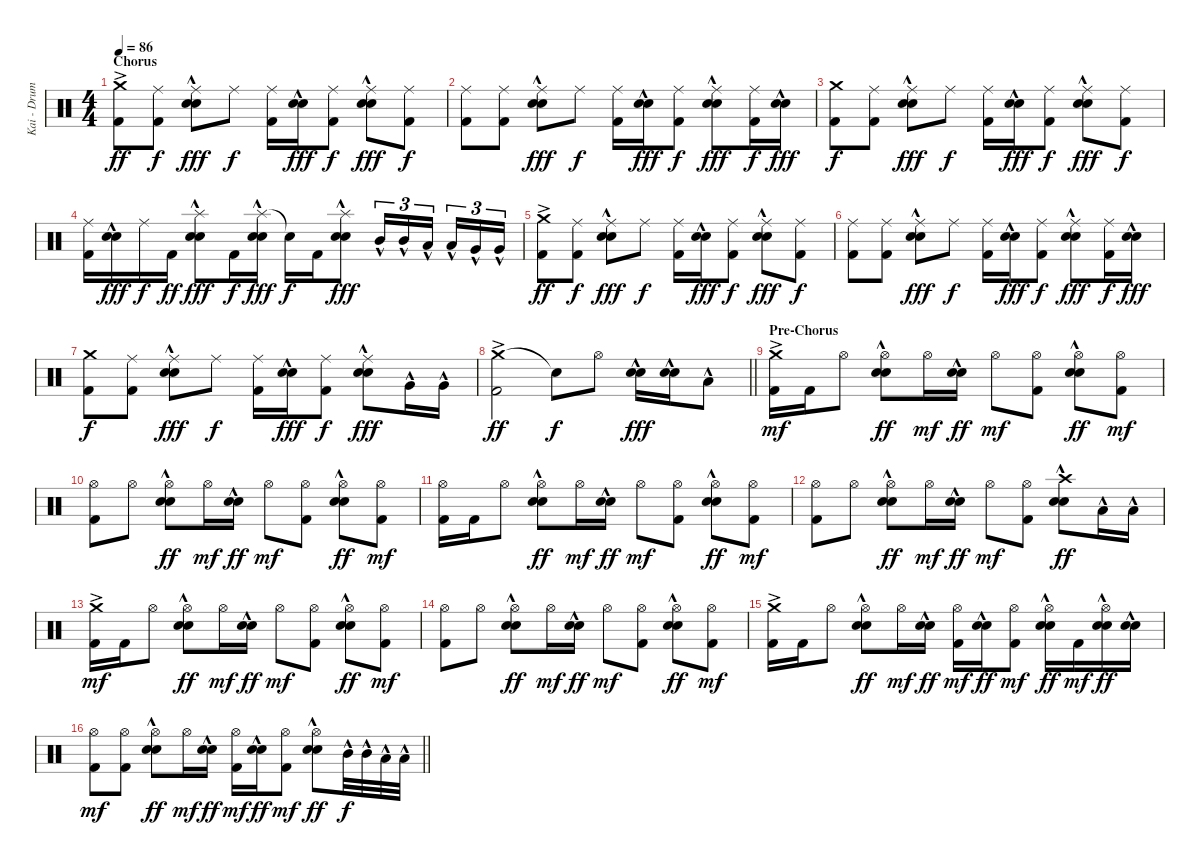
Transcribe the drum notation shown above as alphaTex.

\track ("Kai - Drums" "Kai - Drum") {instrument percussion}
\staff {score}
\articulation defaults
\ts (4 4)
\section ("" "Chorus")
\tempo 86
\clef neutral
\ks c
("Crash medium (hit)"{ac} "Kick (hit) 2").8{dy ff} ("Ride (middle)" "Kick (hit) 2").8{dy f} ("Ride (middle)" "Electric Snare (hit)"{hac} "Snare (hit) 2"{hac}).8{dy fff} "Ride (middle)".8{dy f} ("Ride (middle)" "Kick (hit) 2").16 ("Electric Snare (hit)"{hac} "Snare (hit) 2"{hac}).16{dy fff} ("Ride (middle)" "Kick (hit) 2").8{dy f} ("Ride (middle)" "Electric Snare (hit)"{hac} "Snare (hit) 2"{hac}).8{dy fff} ("Ride (middle)" "Kick (hit) 2").8{dy f} |
("Ride (middle)" "Kick (hit) 2").8 ("Ride (middle)" "Kick (hit) 2").8 ("Ride (middle)" "Electric Snare (hit)"{hac} "Snare (hit) 2"{hac}).8{dy fff} "Ride (middle)".8{dy f} ("Ride (middle)" "Kick (hit) 2").16 ("Electric Snare (hit)"{hac} "Snare (hit) 2"{hac}).16{dy fff} ("Ride (middle)" "Kick (hit) 2").8{dy f} ("Ride (middle)" "Electric Snare (hit)"{hac} "Snare (hit) 2"{hac}).8{dy fff} ("Ride (middle)" "Kick (hit) 2").16{dy f} ("Electric Snare (hit)"{hac} "Snare (hit) 2"{hac}).16{dy fff} |
("Crash medium (hit)" "Kick (hit) 2").8{dy f} ("Ride (middle)" "Kick (hit) 2").8 ("Ride (middle)" "Electric Snare (hit)"{hac} "Snare (hit) 2"{hac}).8{dy fff} "Ride (middle)".8{dy f} ("Ride (middle)" "Kick (hit) 2").16 ("Electric Snare (hit)"{hac} "Snare (hit) 2"{hac}).16{dy fff} ("Ride (middle)" "Kick (hit) 2").8{dy f} ("Ride (middle)" "Electric Snare (hit)"{hac} "Snare (hit) 2"{hac}).8{dy fff} ("Ride (middle)" "Kick (hit) 2").8{dy f} |
("Ride (middle)" "Kick (hit) 2").16 ("Electric Snare (hit)"{hac} "Snare (hit) 2"{hac}).16{dy fff} "Ride (middle)".16{dy f} "Kick (hit) 2".16{dy ff} ("Splash (hit)"{hac} "Electric Snare (hit)"{hac} "Snare (hit) 2"{hac}).8{dy fff} "Kick (hit) 2".16{dy f} ("Splash (hit)"{hac} "Electric Snare (hit)"{hac} "Snare (hit) 2"{hac}).16{dy fff} "Snare (hit)"{t}.16{dy f} "Kick (hit) 2".16 ("Splash (hit)"{hac} "Electric Snare (hit)"{hac} "Snare (hit) 2"{hac}).8{dy fff} "Mid Tom (hit)"{hac}.16{tu (3 2)} "Mid Tom (hit)"{hac}.16{tu (3 2)} "Low Tom (hit)"{hac}.16{tu (3 2) beam splitsecondary} "Low Tom (hit)"{hac}.16{tu (3 2)} "Very Low Tom (hit)"{hac}.16{tu (3 2)} "Very Low Tom (hit)"{hac}.16{tu (3 2)} |
("Crash medium (hit)"{ac} "Kick (hit) 2").8{dy ff} ("Ride (middle)" "Kick (hit) 2").8{dy f} ("Ride (middle)" "Electric Snare (hit)"{hac} "Snare (hit) 2"{hac}).8{dy fff} "Ride (middle)".8{dy f} ("Ride (middle)" "Kick (hit) 2").16 ("Electric Snare (hit)"{hac} "Snare (hit) 2"{hac}).16{dy fff} ("Ride (middle)" "Kick (hit) 2").8{dy f} ("Ride (middle)" "Electric Snare (hit)"{hac} "Snare (hit) 2"{hac}).8{dy fff} ("Ride (middle)" "Kick (hit) 2").8{dy f} |
("Ride (middle)" "Kick (hit) 2").8 ("Ride (middle)" "Kick (hit) 2").8 ("Ride (middle)" "Electric Snare (hit)"{hac} "Snare (hit) 2"{hac}).8{dy fff} "Ride (middle)".8{dy f} ("Ride (middle)" "Kick (hit) 2").16 ("Electric Snare (hit)"{hac} "Snare (hit) 2"{hac}).16{dy fff} ("Ride (middle)" "Kick (hit) 2").8{dy f} ("Ride (middle)" "Electric Snare (hit)"{hac} "Snare (hit) 2"{hac}).8{dy fff} ("Ride (middle)" "Kick (hit) 2").16{dy f} ("Electric Snare (hit)"{hac} "Snare (hit) 2"{hac}).16{dy fff} |
("Crash medium (hit)" "Kick (hit) 2").8{dy f} ("Ride (middle)" "Kick (hit) 2").8 ("Ride (middle)" "Electric Snare (hit)"{hac} "Snare (hit) 2"{hac}).8{dy fff} "Ride (middle)".8{dy f} ("Ride (middle)" "Kick (hit) 2").16 ("Electric Snare (hit)"{hac} "Snare (hit) 2"{hac}).16{dy fff} ("Ride (middle)" "Kick (hit) 2").8{dy f} ("Ride (middle)" "Electric Snare (hit)"{hac} "Snare (hit) 2"{hac}).8{dy fff} "Very Low Tom (hit)"{hac}.16 "Very Low Tom (hit)"{hac}.16 |
\barLineRight lightlight
("Crash medium (hit)"{ac} "Kick (hit) 2").2{dy ff} "Snare (hit)"{t}.8{dy f} "Hi-Hat (open)".8 ("Electric Snare (hit)"{hac} "Snare (hit) 2"{hac}).16{dy fff} ("Electric Snare (hit)"{hac} "Snare (hit) 2"{hac}).16 "Low Tom (hit)"{hac}.8 |
\section ("" "Pre-Chorus")
("Crash medium (hit)"{ac} "Kick (hit) 2").16{dy mf} "Kick (hit) 2".16 "Hi-Hat (open)".8 ("Hi-Hat (open)" "Electric Snare (hit)"{hac} "Snare (hit) 2"{hac}).8{dy ff} "Hi-Hat (open)".16{dy mf} ("Electric Snare (hit)"{hac} "Snare (hit) 2"{hac}).16{dy ff} "Hi-Hat (open)".8{dy mf} ("Hi-Hat (open)" "Kick (hit) 2").8 ("Hi-Hat (open)" "Electric Snare (hit)"{hac} "Snare (hit) 2"{hac}).8{dy ff} ("Hi-Hat (open)" "Kick (hit) 2").8{dy mf} |
("Hi-Hat (open)" "Kick (hit) 2").8 "Hi-Hat (open)".8 ("Hi-Hat (open)" "Electric Snare (hit)"{hac} "Snare (hit) 2"{hac}).8{dy ff} "Hi-Hat (open)".16{dy mf} ("Electric Snare (hit)"{hac} "Snare (hit) 2"{hac}).16{dy ff} "Hi-Hat (open)".8{dy mf} ("Hi-Hat (open)" "Kick (hit) 2").8 ("Hi-Hat (open)" "Electric Snare (hit)"{hac} "Snare (hit) 2"{hac}).8{dy ff} ("Hi-Hat (open)" "Kick (hit) 2").8{dy mf} |
("Hi-Hat (open)" "Kick (hit) 2").16 "Kick (hit) 2".16 "Hi-Hat (open)".8 ("Hi-Hat (open)" "Electric Snare (hit)"{hac} "Snare (hit) 2"{hac}).8{dy ff} "Hi-Hat (open)".16{dy mf} ("Electric Snare (hit)"{hac} "Snare (hit) 2"{hac}).16{dy ff} "Hi-Hat (open)".8{dy mf} ("Hi-Hat (open)" "Kick (hit) 2").8 ("Hi-Hat (open)" "Electric Snare (hit)"{hac} "Snare (hit) 2"{hac}).8{dy ff} ("Hi-Hat (open)" "Kick (hit) 2").8{dy mf} |
("Hi-Hat (open)" "Kick (hit) 2").8 "Hi-Hat (open)".8 ("Hi-Hat (open)" "Electric Snare (hit)"{hac} "Snare (hit) 2"{hac}).8{dy ff} "Hi-Hat (open)".16{dy mf} ("Electric Snare (hit)"{hac} "Snare (hit) 2"{hac}).16{dy ff} "Hi-Hat (open)".8{dy mf} ("Hi-Hat (open)" "Kick (hit) 2").8 ("Crash high (hit)" "Electric Snare (hit)"{hac} "Snare (hit) 2"{hac}).8{dy ff} "Low Tom (hit)"{hac}.16 "Low Tom (hit)"{hac}.16 |
("Crash medium (hit)"{ac} "Kick (hit) 2").16{dy mf} "Kick (hit) 2".16 "Hi-Hat (open)".8 ("Hi-Hat (open)" "Electric Snare (hit)"{hac} "Snare (hit) 2"{hac}).8{dy ff} "Hi-Hat (open)".16{dy mf} ("Electric Snare (hit)"{hac} "Snare (hit) 2"{hac}).16{dy ff} "Hi-Hat (open)".8{dy mf} ("Hi-Hat (open)" "Kick (hit) 2").8 ("Hi-Hat (open)" "Electric Snare (hit)"{hac} "Snare (hit) 2"{hac}).8{dy ff} ("Hi-Hat (open)" "Kick (hit) 2").8{dy mf} |
("Hi-Hat (open)" "Kick (hit) 2").8 "Hi-Hat (open)".8 ("Hi-Hat (open)" "Electric Snare (hit)"{hac} "Snare (hit) 2"{hac}).8{dy ff} "Hi-Hat (open)".16{dy mf} ("Electric Snare (hit)"{hac} "Snare (hit) 2"{hac}).16{dy ff} "Hi-Hat (open)".8{dy mf} ("Hi-Hat (open)" "Kick (hit) 2").8 ("Hi-Hat (open)" "Electric Snare (hit)"{hac} "Snare (hit) 2"{hac}).8{dy ff} ("Hi-Hat (open)" "Kick (hit) 2").8{dy mf} |
("Crash medium (hit)"{ac} "Kick (hit) 2").16 "Kick (hit) 2".16 "Hi-Hat (open)".8 ("Hi-Hat (open)" "Electric Snare (hit)"{hac} "Snare (hit) 2"{hac}).8{dy ff} "Hi-Hat (open)".16{dy mf} ("Electric Snare (hit)"{hac} "Snare (hit) 2"{hac}).16{dy ff} ("Hi-Hat (open)" "Kick (hit) 2").16{dy mf} ("Electric Snare (hit)"{hac} "Snare (hit) 2"{hac}).16{dy ff} ("Hi-Hat (open)" "Kick (hit) 2").8{dy mf} ("Hi-Hat (open)" "Electric Snare (hit)"{hac} "Snare (hit) 2"{hac}).16{dy ff} "Kick (hit) 2".16{dy mf} ("Hi-Hat (open)" "Electric Snare (hit)"{hac} "Snare (hit) 2"{hac}).16{dy ff} ("Electric Snare (hit)"{hac} "Snare (hit) 2"{hac}).16 |
\barLineRight lightlight
("Hi-Hat (open)" "Kick (hit) 2").8{dy mf} ("Hi-Hat (open)" "Kick (hit) 2").8 ("Hi-Hat (open)" "Electric Snare (hit)"{hac} "Snare (hit) 2"{hac}).8{dy ff} "Hi-Hat (open)".16{dy mf} ("Electric Snare (hit)"{hac} "Snare (hit) 2"{hac}).16{dy ff} ("Hi-Hat (open)" "Kick (hit) 2").16{dy mf} ("Electric Snare (hit)"{hac} "Snare (hit) 2"{hac}).16{dy ff} ("Hi-Hat (open)" "Kick (hit) 2").8{dy mf} ("Hi-Hat (open)" "Electric Snare (hit)"{hac} "Snare (hit) 2"{hac}).8{dy ff} "Mid Tom (hit)"{hac}.32{dy f} "Mid Tom (hit)"{hac}.32 "Low Tom (hit)"{hac}.32 "Low Tom (hit)"{hac}.32
